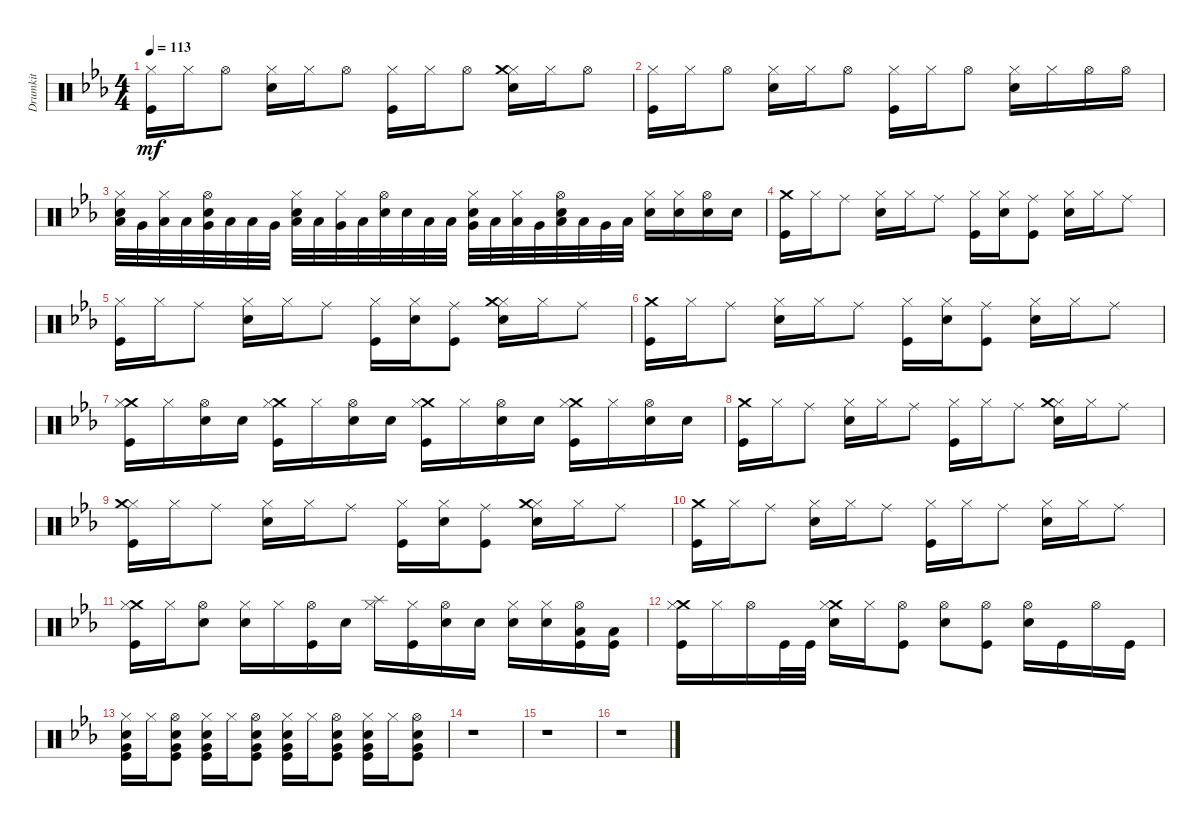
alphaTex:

\track ("Drumkit" "Drumkit") {instrument percussion}
\staff {score}
\articulation defaults
\ts (4 4)
\tempo 113
\clef neutral
\ks eb
("Hi-Hat (closed)" "Kick (hit)").16{dy mf} "Hi-Hat (closed)".16 "Hi-Hat (open)".8 ("Hi-Hat (closed)" "Snare (hit) 2").16 "Hi-Hat (closed)".16 "Hi-Hat (open)".8 ("Hi-Hat (closed)" "Kick (hit)").16 "Hi-Hat (closed)".16 "Hi-Hat (open)".8 ("Hi-Hat (closed)" "Snare (hit) 2" "Crash medium (hit)").16 "Hi-Hat (closed)".16 "Hi-Hat (open)".8 |
("Hi-Hat (closed)" "Kick (hit)").16 "Hi-Hat (closed)".16 "Hi-Hat (open)".8 ("Hi-Hat (closed)" "Snare (hit) 2").16 "Hi-Hat (closed)".16 "Hi-Hat (open)".8 ("Hi-Hat (closed)" "Kick (hit)").16 "Hi-Hat (closed)".16 "Hi-Hat (open)".8 ("Hi-Hat (closed)" "Snare (hit) 2").16 "Hi-Hat (closed)".16 "Hi-Hat (open)".16 "Hi-Hat (open)".16 |
("Low Tom (hit)" "Snare (hit) 2" "Hi-Hat (closed)").32 "Very Low Tom (hit)".32 ("Low Floor Tom (hit)" "Hi-Hat (closed)").32 "Low Tom (hit)".32 ("Very Low Tom (hit)" "Snare (hit) 2" "Hi-Hat (open)").32 "Low Floor Tom (hit)".32 "Low Tom (hit)".32 "Very Low Tom (hit)".32 ("Low Floor Tom (hit)" "Snare (hit) 2" "Hi-Hat (closed)").32 "Low Tom (hit)".32 ("Very Low Tom (hit)" "Hi-Hat (closed)").32 "Low Floor Tom (hit)".32 ("Snare (hit) 2" "Hi-Hat (open)").32 "Snare (hit) 2".32 "Low Floor Tom (hit)".32 "Low Tom (hit)".32 ("Very Low Tom (hit)" "Snare (hit) 2" "Hi-Hat (closed)").32 "Low Floor Tom (hit)".32 ("Low Tom (hit)" "Hi-Hat (closed)").32 "Very Low Tom (hit)".32 ("Low Floor Tom (hit)" "Snare (hit) 2" "Hi-Hat (open)").32 "Low Tom (hit)".32 "Very Low Tom (hit)".32 "Low Floor Tom (hit)".32 ("Snare (hit) 2" "Hi-Hat (closed)").16 ("Snare (hit) 2" "Hi-Hat (closed)").16 ("Snare (hit) 2" "Hi-Hat (open)").16 "Snare (hit) 2".16 |
("Crash medium (hit)" "Kick (hit)").16 "Hi-Hat (closed)".16 "Ride (middle)".8 ("Snare (hit) 2" "Hi-Hat (closed)").16 "Hi-Hat (closed)".16 "Ride (middle)".8 ("Kick (hit)" "Hi-Hat (closed)").16 ("Snare (hit) 2" "Hi-Hat (closed)").16 ("Ride (middle)" "Kick (hit)").8 ("Snare (hit) 2" "Hi-Hat (closed)").16 "Hi-Hat (closed)".16 "Ride (middle)".8 |
("Kick (hit)" "Hi-Hat (closed)").16 "Hi-Hat (closed)".16 "Ride (middle)".8 ("Snare (hit) 2" "Hi-Hat (closed)").16 "Hi-Hat (closed)".16 "Ride (middle)".8 ("Kick (hit)" "Hi-Hat (closed)").16 ("Snare (hit) 2" "Hi-Hat (closed)").16 ("Ride (middle)" "Kick (hit)").8 ("Snare (hit) 2" "Hi-Hat (closed)" "Crash medium (hit)").16 "Hi-Hat (closed)".16 "Ride (middle)".8 |
("Crash medium (hit)" "Kick (hit)").16 "Hi-Hat (closed)".16 "Ride (middle)".8 ("Snare (hit) 2" "Hi-Hat (closed)").16 "Hi-Hat (closed)".16 "Ride (middle)".8 ("Kick (hit)" "Hi-Hat (closed)").16 ("Snare (hit) 2" "Hi-Hat (closed)").16 ("Ride (middle)" "Kick (hit)").8 ("Snare (hit) 2" "Hi-Hat (closed)").16 "Hi-Hat (closed)".16 "Ride (middle)".8 |
("Kick (hit)" "Crash medium (hit)" "Hi-Hat (closed)").16 "Hi-Hat (closed)".16 ("Snare (hit) 2" "Hi-Hat (open)").16 "Snare (hit) 2".16 ("Kick (hit)" "Crash medium (hit)" "Hi-Hat (closed)").16 "Hi-Hat (closed)".16 ("Snare (hit) 2" "Hi-Hat (open)").16 "Snare (hit) 2".16 ("Kick (hit)" "Crash medium (hit)" "Hi-Hat (closed)").16 "Hi-Hat (closed)".16 ("Snare (hit) 2" "Hi-Hat (open)").16 "Snare (hit) 2".16 ("Kick (hit)" "Crash medium (hit)" "Hi-Hat (closed)").16 "Hi-Hat (closed)".16 ("Snare (hit) 2" "Hi-Hat (open)").16 "Snare (hit) 2".16 |
("Crash medium (hit)" "Kick (hit)").16 "Hi-Hat (closed)".16 "Ride (middle)".8 ("Snare (hit) 2" "Hi-Hat (closed)").16 "Hi-Hat (closed)".16 "Ride (middle)".8 ("Kick (hit)" "Hi-Hat (closed)").16 "Hi-Hat (closed)".16 "Ride (middle)".8 ("Snare (hit) 2" "Hi-Hat (closed)" "Crash medium (hit)").16 "Hi-Hat (closed)".16 "Ride (middle)".8 |
("Kick (hit)" "Hi-Hat (closed)" "Crash medium (hit)").16 "Hi-Hat (closed)".16 "Ride (middle)".8 ("Snare (hit) 2" "Hi-Hat (closed)").16 "Hi-Hat (closed)".16 "Ride (middle)".8 ("Kick (hit)" "Hi-Hat (closed)").16 ("Snare (hit) 2" "Hi-Hat (closed)").16 ("Ride (middle)" "Kick (hit)").8 ("Snare (hit) 2" "Hi-Hat (closed)" "Crash medium (hit)").16 "Hi-Hat (closed)".16 "Ride (middle)".8 |
("Crash medium (hit)" "Kick (hit)").16 "Hi-Hat (closed)".16 "Ride (middle)".8 ("Snare (hit) 2" "Hi-Hat (closed)").16 "Hi-Hat (closed)".16 "Ride (middle)".8 ("Kick (hit)" "Hi-Hat (closed)").16 "Hi-Hat (closed)".16 "Ride (middle)".8 ("Snare (hit) 2" "Hi-Hat (closed)").16 "Hi-Hat (closed)".16 "Ride (middle)".8 |
("Kick (hit)" "Crash medium (hit)" "Hi-Hat (closed)").16 "Hi-Hat (closed)".16 ("Snare (hit) 2" "Hi-Hat (open)").8 ("Snare (hit) 2" "Hi-Hat (closed)").16 "Hi-Hat (closed)".16 ("Kick (hit)" "Hi-Hat (open)").16 "Snare (hit) 2".16 ("Splash (hit)" "Hi-Hat (closed)").16 ("Kick (hit)" "Hi-Hat (closed)").16 ("Snare (hit) 2" "Hi-Hat (open)").16 "Snare (hit) 2".16 ("Snare (hit) 2" "Hi-Hat (closed)").16 ("Snare (hit) 2" "Hi-Hat (closed)").16 ("Kick (hit)" "Low Floor Tom (hit)" "Hi-Hat (open)").16 ("Kick (hit)" "Low Floor Tom (hit)").16 |
("Kick (hit)" "Crash medium (hit)" "Hi-Hat (closed)").16 "Hi-Hat (closed)".16 "Hi-Hat (open)".16 "Kick (hit)".32 "Kick (hit)".32 ("Snare (hit) 2" "Crash medium (hit)" "Hi-Hat (closed)").16 "Hi-Hat (closed)".16 ("Kick (hit)" "Hi-Hat (open)").8 ("Snare (hit) 2" "Hi-Hat (open)").8 ("Kick (hit)" "Hi-Hat (open)").8 ("Snare (hit) 2" "Hi-Hat (open)").16 "Kick (hit)".16 "Hi-Hat (open)".16 "Kick (hit)".16 |
("Snare (hit) 2" "Kick (hit)" "Very Low Tom (hit)" "Hi-Hat (closed)").16 "Hi-Hat (closed)".16 ("Snare (hit) 2" "Kick (hit)" "Very Low Tom (hit)" "Hi-Hat (open)").8 ("Snare (hit) 2" "Kick (hit)" "Very Low Tom (hit)" "Hi-Hat (closed)").16 "Hi-Hat (closed)".16 ("Snare (hit) 2" "Kick (hit)" "Very Low Tom (hit)" "Hi-Hat (open)").8 ("Snare (hit) 2" "Kick (hit)" "Very Low Tom (hit)" "Hi-Hat (closed)").16 "Hi-Hat (closed)".16 ("Snare (hit) 2" "Kick (hit)" "Very Low Tom (hit)" "Hi-Hat (open)").8 ("Snare (hit) 2" "Kick (hit)" "Very Low Tom (hit)" "Hi-Hat (closed)").16 "Hi-Hat (closed)".16 ("Snare (hit) 2" "Kick (hit)" "Very Low Tom (hit)" "Hi-Hat (open)").8 |
r.1 |
r.1 |
r.1
